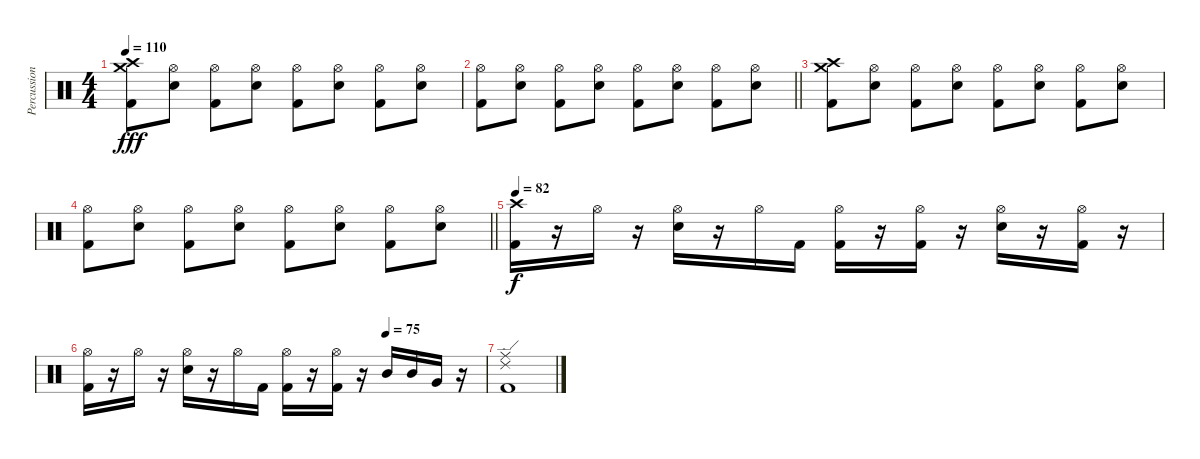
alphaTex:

\track ("Percussion" "Percussion") {instrument percussion}
\staff {score}
\articulation defaults
\ts (4 4)
\tempo 110
\clef neutral
\ks c
("Kick (hit) 2" "Crash medium (hit)" "Crash high (hit)").8{dy fff} ("Electric Snare (hit)" "Hi-Hat (open)").8 ("Kick (hit) 2" "Hi-Hat (open)").8 ("Electric Snare (hit)" "Hi-Hat (open)").8 ("Kick (hit) 2" "Hi-Hat (open)").8 ("Electric Snare (hit)" "Hi-Hat (open)").8 ("Kick (hit) 2" "Hi-Hat (open)").8 ("Electric Snare (hit)" "Hi-Hat (open)").8 |
\barLineRight lightlight
("Kick (hit) 2" "Hi-Hat (open)").8 ("Electric Snare (hit)" "Hi-Hat (open)").8 ("Kick (hit) 2" "Hi-Hat (open)").8 ("Electric Snare (hit)" "Hi-Hat (open)").8 ("Kick (hit) 2" "Hi-Hat (open)").8 ("Electric Snare (hit)" "Hi-Hat (open)").8 ("Kick (hit) 2" "Hi-Hat (open)").8 ("Electric Snare (hit)" "Hi-Hat (open)").8 |
("Kick (hit) 2" "Crash medium (hit)" "Crash high (hit)").8 ("Electric Snare (hit)" "Hi-Hat (open)").8 ("Kick (hit) 2" "Hi-Hat (open)").8 ("Electric Snare (hit)" "Hi-Hat (open)").8 ("Kick (hit) 2" "Hi-Hat (open)").8 ("Electric Snare (hit)" "Hi-Hat (open)").8 ("Kick (hit) 2" "Hi-Hat (open)").8 ("Electric Snare (hit)" "Hi-Hat (open)").8 |
\barLineRight lightlight
("Kick (hit) 2" "Hi-Hat (open)").8 ("Electric Snare (hit)" "Hi-Hat (open)").8 ("Kick (hit) 2" "Hi-Hat (open)").8 ("Electric Snare (hit)" "Hi-Hat (open)").8 ("Kick (hit) 2" "Hi-Hat (open)").8 ("Electric Snare (hit)" "Hi-Hat (open)").8 ("Kick (hit) 2" "Hi-Hat (open)").8 ("Electric Snare (hit)" "Hi-Hat (open)").8 |
\tempo 83
\tempo 82
("Crash high (hit)" "Kick (hit) 2").16{dy f} r.16 "Hi-Hat (open)".16 r.16 ("Hi-Hat (open)" "Electric Snare (hit)").16 r.16 "Hi-Hat (open)".16 "Kick (hit) 2".16 ("Hi-Hat (open)" "Kick (hit) 2").16 r.16 ("Hi-Hat (open)" "Kick (hit) 2").16 r.16 ("Hi-Hat (open)" "Electric Snare (hit)").16 r.16 ("Hi-Hat (open)" "Kick (hit) 2").16 r.16 |
\tempo (75 0.75)
("Hi-Hat (open)" "Kick (hit) 2").16 r.16 "Hi-Hat (open)".16 r.16 ("Hi-Hat (open)" "Electric Snare (hit)").16 r.16 "Hi-Hat (open)".16 "Kick (hit) 2".16 ("Hi-Hat (open)" "Kick (hit) 2").16 r.16 ("Hi-Hat (open)" "Kick (hit) 2").16 r.16 "Mid Tom (hit)".16 "Mid Tom (hit)".16 "Very Low Tom (hit)".16 r.16 |
("Kick (hit) 2" "Ride (edge) 2" "Ride (middle)").1
